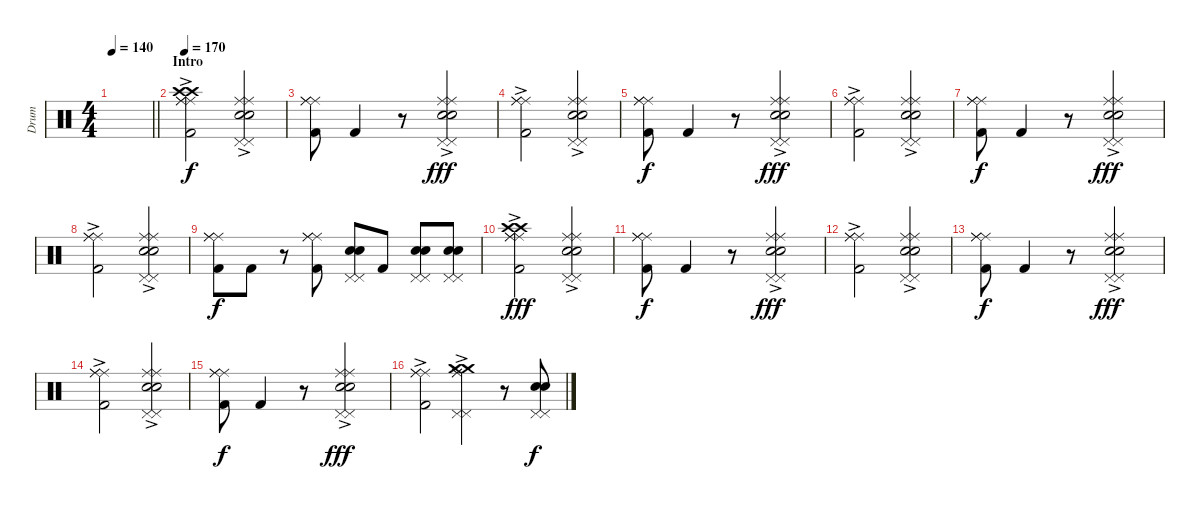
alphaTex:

\track ("Drum" "Drum") {instrument percussion}
\staff {score}
\articulation defaults
\ts (4 4)
\tempo 140
\clef neutral
\barLineRight lightlight
\ks c
|
\section ("" "Intro")
\tempo 170
("Crash high (hit)" "Crash high (hit)" "Kick (hit) 2" "Ride (middle)" "Ride (middle)" "Ride (middle)"{ac}).2 ("Electric Snare (hit)" "Electric Snare (hit)" "Pedal Hi-Hat (hit)" "Pedal Hi-Hat (hit)" "Ride (middle)" "Ride (middle)"{ac}).2 |
("Kick (hit) 2" "Ride (middle)" "Ride (middle)" "Ride (middle)").8{dy f} "Kick (hit) 2".4 r.8 ("Electric Snare (hit)" "Electric Snare (hit)" "Pedal Hi-Hat (hit)" "Pedal Hi-Hat (hit)" "Ride (middle)" "Ride (middle)"{ac}).2{dy fff} |
("Kick (hit) 2" "Ride (middle)" "Ride (middle)" "Ride (middle)"{ac}).2 ("Electric Snare (hit)" "Electric Snare (hit)" "Pedal Hi-Hat (hit)" "Pedal Hi-Hat (hit)" "Ride (middle)" "Ride (middle)"{ac}).2 |
("Kick (hit) 2" "Ride (middle)" "Ride (middle)" "Ride (middle)").8{dy f} "Kick (hit) 2".4 r.8 ("Electric Snare (hit)" "Electric Snare (hit)" "Pedal Hi-Hat (hit)" "Pedal Hi-Hat (hit)" "Ride (middle)" "Ride (middle)"{ac}).2{dy fff} |
("Kick (hit) 2" "Ride (middle)" "Ride (middle)" "Ride (middle)"{ac}).2 ("Electric Snare (hit)" "Electric Snare (hit)" "Pedal Hi-Hat (hit)" "Pedal Hi-Hat (hit)" "Ride (middle)" "Ride (middle)"{ac}).2 |
("Kick (hit) 2" "Ride (middle)" "Ride (middle)" "Ride (middle)").8{dy f} "Kick (hit) 2".4 r.8 ("Electric Snare (hit)" "Electric Snare (hit)" "Pedal Hi-Hat (hit)" "Pedal Hi-Hat (hit)" "Ride (middle)" "Ride (middle)"{ac}).2{dy fff} |
("Kick (hit) 2" "Ride (middle)" "Ride (middle)" "Ride (middle)"{ac}).2 ("Electric Snare (hit)" "Electric Snare (hit)" "Pedal Hi-Hat (hit)" "Pedal Hi-Hat (hit)" "Ride (middle)" "Ride (middle)"{ac}).2 |
("Kick (hit) 2" "Ride (middle)" "Ride (middle)" "Ride (middle)").8{dy f} "Kick (hit) 2".8 r.8 ("Kick (hit) 2" "Ride (middle)" "Ride (middle)" "Ride (middle)").8 ("Electric Snare (hit)" "Electric Snare (hit)" "Pedal Hi-Hat (hit)" "Pedal Hi-Hat (hit)").8 "Kick (hit) 2".8 ("Electric Snare (hit)" "Electric Snare (hit)" "Pedal Hi-Hat (hit)" "Pedal Hi-Hat (hit)").8 ("Electric Snare (hit)" "Electric Snare (hit)" "Pedal Hi-Hat (hit)" "Pedal Hi-Hat (hit)").8 |
("Crash high (hit)" "Crash high (hit)" "Kick (hit) 2" "Ride (middle)" "Ride (middle)" "Ride (middle)"{ac}).2{dy fff} ("Electric Snare (hit)" "Electric Snare (hit)" "Pedal Hi-Hat (hit)" "Pedal Hi-Hat (hit)" "Ride (middle)" "Ride (middle)"{ac}).2 |
("Kick (hit) 2" "Ride (middle)" "Ride (middle)" "Ride (middle)").8{dy f} "Kick (hit) 2".4 r.8 ("Electric Snare (hit)" "Electric Snare (hit)" "Pedal Hi-Hat (hit)" "Pedal Hi-Hat (hit)" "Ride (middle)" "Ride (middle)"{ac}).2{dy fff} |
("Kick (hit) 2" "Ride (middle)" "Ride (middle)" "Ride (middle)"{ac}).2 ("Electric Snare (hit)" "Electric Snare (hit)" "Pedal Hi-Hat (hit)" "Pedal Hi-Hat (hit)" "Ride (middle)" "Ride (middle)"{ac}).2 |
("Kick (hit) 2" "Ride (middle)" "Ride (middle)" "Ride (middle)").8{dy f} "Kick (hit) 2".4 r.8 ("Electric Snare (hit)" "Electric Snare (hit)" "Pedal Hi-Hat (hit)" "Pedal Hi-Hat (hit)" "Ride (middle)" "Ride (middle)"{ac}).2{dy fff} |
("Kick (hit) 2" "Ride (middle)" "Ride (middle)" "Ride (middle)"{ac}).2 ("Electric Snare (hit)" "Electric Snare (hit)" "Pedal Hi-Hat (hit)" "Pedal Hi-Hat (hit)" "Ride (middle)" "Ride (middle)"{ac}).2 |
("Kick (hit) 2" "Ride (middle)" "Ride (middle)" "Ride (middle)").8{dy f} "Kick (hit) 2".4 r.8 ("Electric Snare (hit)" "Electric Snare (hit)" "Pedal Hi-Hat (hit)" "Pedal Hi-Hat (hit)" "Ride (middle)" "Ride (middle)"{ac}).2{dy fff} |
("Kick (hit) 2" "Ride (middle)" "Ride (middle)" "Ride (middle)"{ac}).2 ("Crash medium (hit)" "Crash medium (hit)" "Pedal Hi-Hat (hit)" "Pedal Hi-Hat (hit)" "Ride (middle)" "Ride (middle)"{ac}).4 r.8 ("Electric Snare (hit)" "Electric Snare (hit)" "Pedal Hi-Hat (hit)" "Pedal Hi-Hat (hit)").8{dy f}
